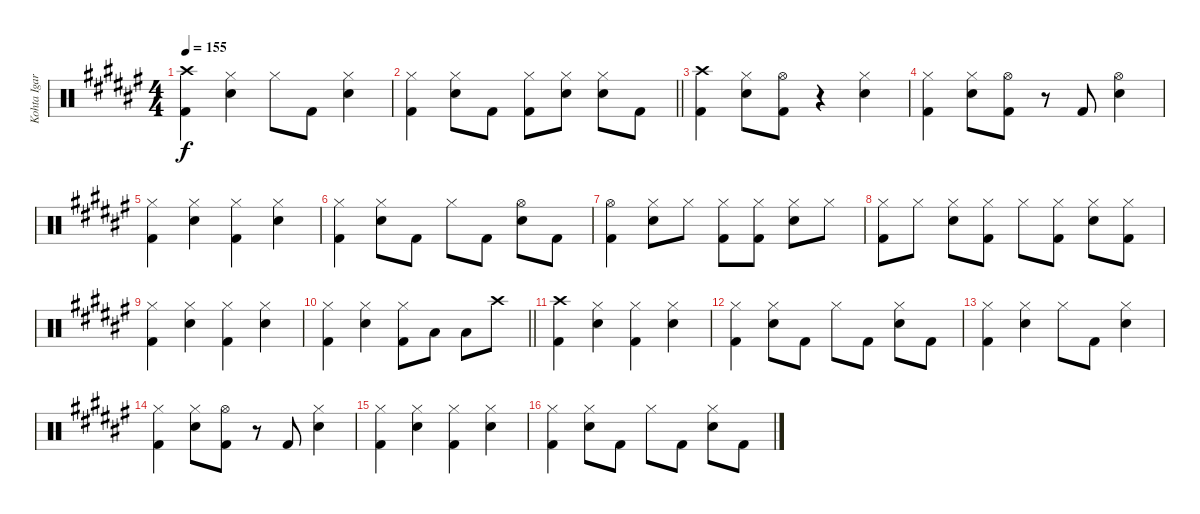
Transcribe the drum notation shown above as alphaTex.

\track ("Kohta Igarashi" "Kohta Igar") {instrument percussion}
\staff {score}
\articulation defaults
\ts (4 4)
\tempo 155
\clef neutral
\ks f#
("Crash high (hit)" "Kick (hit) 2").4{dy f} ("Hi-Hat (closed)" "Electric Snare (hit)").4 "Hi-Hat (closed)".8 "Kick (hit) 2".8 ("Hi-Hat (closed)" "Electric Snare (hit)").4 |
\barLineRight lightlight
("Hi-Hat (closed)" "Kick (hit) 2").4 ("Hi-Hat (closed)" "Electric Snare (hit)").8 "Kick (hit) 2".8 ("Hi-Hat (closed)" "Kick (hit) 2").8 ("Hi-Hat (closed)" "Electric Snare (hit)").8 ("Hi-Hat (closed)" "Electric Snare (hit)").8 "Kick (hit) 2".8 |
("Crash high (hit)" "Kick (hit) 2").4 ("Hi-Hat (closed)" "Electric Snare (hit)").8 ("Hi-Hat (open)" "Kick (hit) 2").8 r.4 ("Hi-Hat (closed)" "Electric Snare (hit)").4 |
("Hi-Hat (closed)" "Kick (hit) 2").4 ("Hi-Hat (closed)" "Electric Snare (hit)").8 ("Hi-Hat (open)" "Kick (hit) 2").8 r.8 "Kick (hit) 2".8 ("Hi-Hat (open)" "Electric Snare (hit)").4 |
("Hi-Hat (closed)" "Kick (hit) 2").4 ("Hi-Hat (closed)" "Electric Snare (hit)").4 ("Hi-Hat (closed)" "Kick (hit) 2").4 ("Hi-Hat (closed)" "Electric Snare (hit)").4 |
("Hi-Hat (closed)" "Kick (hit) 2").4 ("Hi-Hat (closed)" "Electric Snare (hit)").8 "Kick (hit) 2".8 "Hi-Hat (closed)".8 "Kick (hit) 2".8 ("Hi-Hat (open)" "Electric Snare (hit)").8 "Kick (hit) 2".8 |
("Hi-Hat (open)" "Kick (hit) 2").4 ("Hi-Hat (closed)" "Electric Snare (hit)").8 "Hi-Hat (closed)".8 ("Hi-Hat (closed)" "Kick (hit) 2").8 ("Hi-Hat (closed)" "Kick (hit) 2").8 ("Hi-Hat (closed)" "Electric Snare (hit)").8 "Hi-Hat (closed)".8 |
("Hi-Hat (closed)" "Kick (hit) 2").8 "Hi-Hat (closed)".8 ("Hi-Hat (closed)" "Electric Snare (hit)").8 ("Hi-Hat (closed)" "Kick (hit) 2").8 "Hi-Hat (closed)".8 ("Hi-Hat (closed)" "Kick (hit) 2").8 ("Hi-Hat (closed)" "Electric Snare (hit)").8 ("Hi-Hat (closed)" "Kick (hit) 2").8 |
("Hi-Hat (closed)" "Kick (hit) 2").4 ("Hi-Hat (closed)" "Electric Snare (hit)").4 ("Hi-Hat (closed)" "Kick (hit) 2").4 ("Hi-Hat (closed)" "Electric Snare (hit)").4 |
\barLineRight lightlight
("Hi-Hat (closed)" "Kick (hit) 2").4 ("Hi-Hat (closed)" "Electric Snare (hit)").4 ("Hi-Hat (closed)" "Kick (hit) 2").8 "Low Tom (hit)".8 "Low Tom (hit)".8 "Crash high (hit)".8 |
("Crash high (hit)" "Kick (hit) 2").4 ("Hi-Hat (closed)" "Electric Snare (hit)").4 ("Hi-Hat (closed)" "Kick (hit) 2").4 ("Hi-Hat (closed)" "Electric Snare (hit)").4 |
("Hi-Hat (closed)" "Kick (hit) 2").4 ("Hi-Hat (closed)" "Electric Snare (hit)").8 "Kick (hit) 2".8 "Hi-Hat (closed)".8 "Kick (hit) 2".8 ("Hi-Hat (closed)" "Electric Snare (hit)").8 "Kick (hit) 2".8 |
("Hi-Hat (closed)" "Kick (hit) 2").4 ("Hi-Hat (closed)" "Electric Snare (hit)").4 "Hi-Hat (closed)".8 "Kick (hit) 2".8 ("Hi-Hat (closed)" "Electric Snare (hit)").4 |
("Hi-Hat (closed)" "Kick (hit) 2").4 ("Hi-Hat (closed)" "Electric Snare (hit)").8 ("Hi-Hat (open)" "Kick (hit) 2").8 r.8 "Kick (hit) 2".8 ("Hi-Hat (closed)" "Electric Snare (hit)").4 |
("Hi-Hat (closed)" "Kick (hit) 2").4 ("Hi-Hat (closed)" "Electric Snare (hit)").4 ("Hi-Hat (closed)" "Kick (hit) 2").4 ("Hi-Hat (closed)" "Electric Snare (hit)").4 |
("Hi-Hat (closed)" "Kick (hit) 2").4 ("Hi-Hat (closed)" "Electric Snare (hit)").8 "Kick (hit) 2".8 "Hi-Hat (closed)".8 "Kick (hit) 2".8 ("Hi-Hat (closed)" "Electric Snare (hit)").8 "Kick (hit) 2".8
